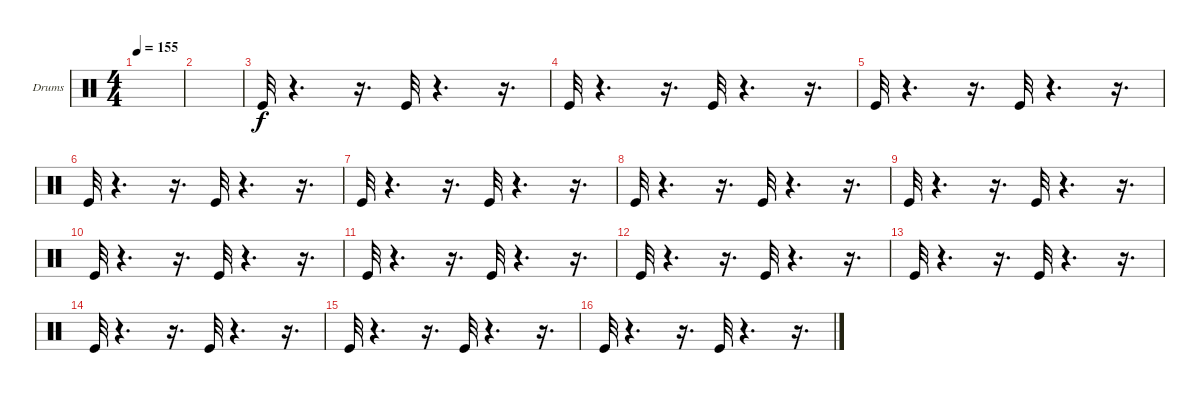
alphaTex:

\bracketExtendMode groupsimilarinstruments
\firstSystemTrackNameOrientation horizontal
\otherSystemsTrackNameOrientation horizontal
\track ("Е. Кулаков" "Drums") {instrument percussion}
\staff {score}
\articulation defaults
\ts (4 4)
\tempo 155
\clef neutral
\ks c
|
|
"Kick (hit)".32 r.4{d} r.16{d} "Kick (hit)".32 r.4{d} r.16{d} |
"Kick (hit)".32 r.4{d} r.16{d} "Kick (hit)".32 r.4{d} r.16{d} |
"Kick (hit)".32 r.4{d} r.16{d} "Kick (hit)".32 r.4{d} r.16{d} |
"Kick (hit)".32 r.4{d} r.16{d} "Kick (hit)".32 r.4{d} r.16{d} |
"Kick (hit)".32 r.4{d} r.16{d} "Kick (hit)".32 r.4{d} r.16{d} |
"Kick (hit)".32 r.4{d} r.16{d} "Kick (hit)".32 r.4{d} r.16{d} |
"Kick (hit)".32 r.4{d} r.16{d} "Kick (hit)".32 r.4{d} r.16{d} |
"Kick (hit)".32 r.4{d} r.16{d} "Kick (hit)".32 r.4{d} r.16{d} |
"Kick (hit)".32 r.4{d} r.16{d} "Kick (hit)".32 r.4{d} r.16{d} |
"Kick (hit)".32 r.4{d} r.16{d} "Kick (hit)".32 r.4{d} r.16{d} |
"Kick (hit)".32 r.4{d} r.16{d} "Kick (hit)".32 r.4{d} r.16{d} |
"Kick (hit)".32 r.4{d} r.16{d} "Kick (hit)".32 r.4{d} r.16{d} |
"Kick (hit)".32 r.4{d} r.16{d} "Kick (hit)".32 r.4{d} r.16{d} |
"Kick (hit)".32 r.4{d} r.16{d} "Kick (hit)".32 r.4{d} r.16{d}
